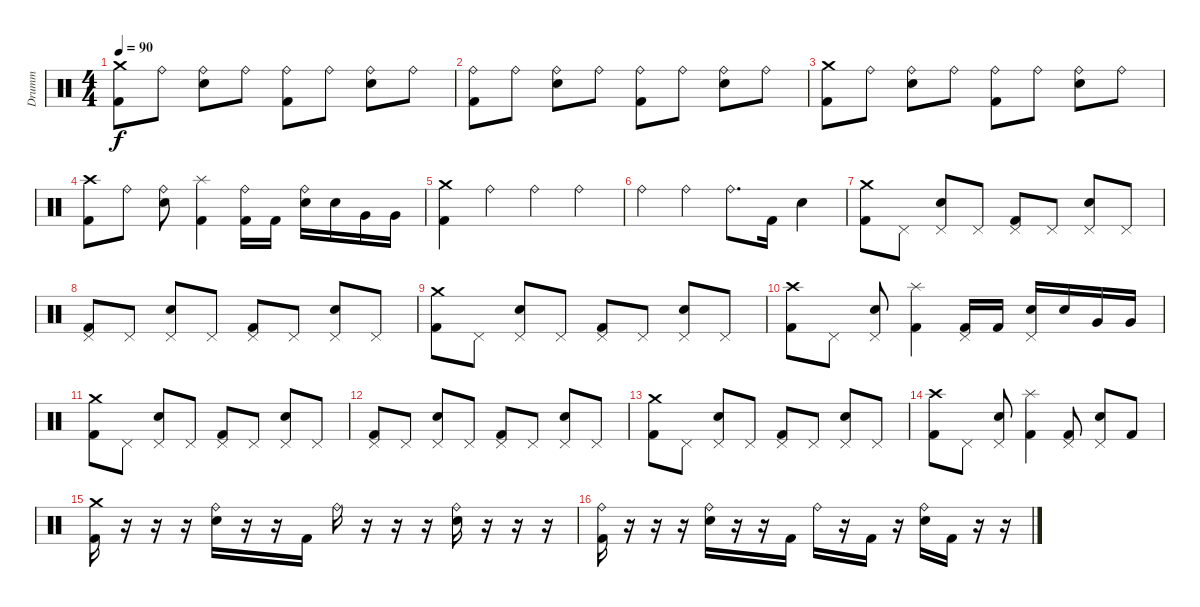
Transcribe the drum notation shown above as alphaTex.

\track ("Drumm" "Drumm") {instrument percussion}
\staff {score}
\articulation defaults
\ts (4 4)
\tempo 90
\clef neutral
\ks c
("Crash medium (hit)" "Kick (hit) 2").8{dy f} "Ride (bell)".8 ("Ride (bell)" "Snare (hit) 2").8 "Ride (bell)".8 ("Ride (bell)" "Kick (hit) 2").8 "Ride (bell)".8 ("Ride (bell)" "Snare (hit) 2").8 "Ride (bell)".8 |
("Ride (bell)" "Kick (hit) 2").8 "Ride (bell)".8 ("Ride (bell)" "Snare (hit) 2").8 "Ride (bell)".8 ("Ride (bell)" "Kick (hit) 2").8 "Ride (bell)".8 ("Ride (bell)" "Snare (hit) 2").8 "Ride (bell)".8 |
("Crash medium (hit)" "Kick (hit) 2").8 "Ride (bell)".8 ("Ride (bell)" "Snare (hit) 2").8 "Ride (bell)".8 ("Ride (bell)" "Kick (hit) 2").8 "Ride (bell)".8 ("Ride (bell)" "Snare (hit) 2").8 "Ride (bell)".8 |
("Crash high (hit)" "Kick (hit) 2").8 "Ride (bell)".8 ("Ride (bell)" "Snare (hit) 2").8 ("Splash (hit)" "Kick (hit) 2").4 ("Ride (bell)" "Kick (hit) 2").16 "Kick (hit) 2".16 ("Ride (bell)" "Snare (hit) 2").16 "Snare (hit) 2".16 "Very Low Tom (hit)".16 "Very Low Tom (hit)".16 |
("Crash medium (hit)" "Kick (hit) 2").4 "Ride (bell)".4 "Ride (bell)".4 "Ride (bell)".4 |
"Ride (bell)".4 "Ride (bell)".4 "Ride (bell)".8{d} "Kick (hit) 2".16 "Snare (hit) 2".4 |
("Crash medium (hit)" "Kick (hit) 2").8 "Pedal Hi-Hat (hit)".8 ("Pedal Hi-Hat (hit)" "Snare (hit) 2").8 "Pedal Hi-Hat (hit)".8 ("Pedal Hi-Hat (hit)" "Kick (hit) 2").8 "Pedal Hi-Hat (hit)".8 ("Pedal Hi-Hat (hit)" "Snare (hit) 2").8 "Pedal Hi-Hat (hit)".8 |
("Pedal Hi-Hat (hit)" "Kick (hit) 2").8 "Pedal Hi-Hat (hit)".8 ("Pedal Hi-Hat (hit)" "Snare (hit) 2").8 "Pedal Hi-Hat (hit)".8 ("Pedal Hi-Hat (hit)" "Kick (hit) 2").8 "Pedal Hi-Hat (hit)".8 ("Pedal Hi-Hat (hit)" "Snare (hit) 2").8 "Pedal Hi-Hat (hit)".8 |
("Crash medium (hit)" "Kick (hit) 2").8 "Pedal Hi-Hat (hit)".8 ("Pedal Hi-Hat (hit)" "Snare (hit) 2").8 "Pedal Hi-Hat (hit)".8 ("Pedal Hi-Hat (hit)" "Kick (hit) 2").8 "Pedal Hi-Hat (hit)".8 ("Pedal Hi-Hat (hit)" "Snare (hit) 2").8 "Pedal Hi-Hat (hit)".8 |
("Crash high (hit)" "Kick (hit) 2").8 "Pedal Hi-Hat (hit)".8 ("Pedal Hi-Hat (hit)" "Snare (hit) 2").8 ("Splash (hit)" "Kick (hit) 2").4 ("Pedal Hi-Hat (hit)" "Kick (hit) 2").16 "Kick (hit) 2".16 ("Pedal Hi-Hat (hit)" "Snare (hit) 2").16 "Snare (hit) 2".16 "Very Low Tom (hit)".16 "Very Low Tom (hit)".16 |
("Crash medium (hit)" "Kick (hit) 2").8 "Pedal Hi-Hat (hit)".8 ("Pedal Hi-Hat (hit)" "Snare (hit) 2").8 "Pedal Hi-Hat (hit)".8 ("Pedal Hi-Hat (hit)" "Kick (hit) 2").8 "Pedal Hi-Hat (hit)".8 ("Pedal Hi-Hat (hit)" "Snare (hit) 2").8 "Pedal Hi-Hat (hit)".8 |
("Pedal Hi-Hat (hit)" "Kick (hit) 2").8 "Pedal Hi-Hat (hit)".8 ("Pedal Hi-Hat (hit)" "Snare (hit) 2").8 "Pedal Hi-Hat (hit)".8 ("Pedal Hi-Hat (hit)" "Kick (hit) 2").8 "Pedal Hi-Hat (hit)".8 ("Pedal Hi-Hat (hit)" "Snare (hit) 2").8 "Pedal Hi-Hat (hit)".8 |
("Crash medium (hit)" "Kick (hit) 2").8 "Pedal Hi-Hat (hit)".8 ("Pedal Hi-Hat (hit)" "Snare (hit) 2").8 "Pedal Hi-Hat (hit)".8 ("Pedal Hi-Hat (hit)" "Kick (hit) 2").8 "Pedal Hi-Hat (hit)".8 ("Pedal Hi-Hat (hit)" "Snare (hit) 2").8 "Pedal Hi-Hat (hit)".8 |
("Crash high (hit)" "Kick (hit) 2").8 "Pedal Hi-Hat (hit)".8 ("Pedal Hi-Hat (hit)" "Snare (hit) 2").8 ("Splash (hit)" "Kick (hit) 2").4 ("Pedal Hi-Hat (hit)" "Kick (hit) 2").8 ("Pedal Hi-Hat (hit)" "Snare (hit) 2").8 "Kick (hit) 2".8 |
("Crash medium (hit)" "Kick (hit) 2").16 r.16 r.16 r.16 ("Ride (bell)" "Snare (hit) 2").16 r.16 r.16 "Kick (hit) 2".16 "Ride (bell)".16 r.16 r.16 r.16 ("Ride (bell)" "Snare (hit) 2").16 r.16 r.16 r.16 |
("Ride (bell)" "Kick (hit) 2").16 r.16 r.16 r.16 ("Ride (bell)" "Snare (hit) 2").16 r.16 r.16 "Kick (hit) 2".16 "Ride (bell)".16 r.16 "Kick (hit) 2".16 r.16 ("Ride (bell)" "Snare (hit) 2").16 "Kick (hit) 2".16 r.16 r.16
